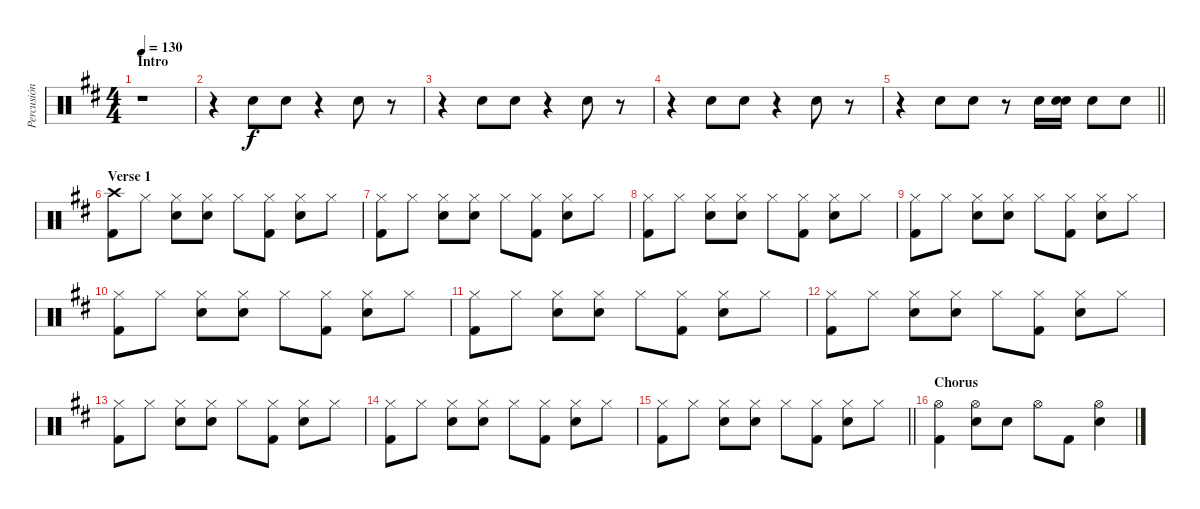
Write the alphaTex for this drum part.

\track ("Percusión" "Percusión") {instrument percussion}
\staff {score}
\articulation defaults
\ts (4 4)
\section ("" "Intro")
\tempo 130
\clef neutral
\ks d
r.1{dy f} |
r.4 "Hand Clap (hit)".8 "Hand Clap (hit)".8 r.4 "Hand Clap (hit)".8 r.8 |
r.4 "Hand Clap (hit)".8 "Hand Clap (hit)".8 r.4 "Hand Clap (hit)".8 r.8 |
r.4 "Hand Clap (hit)".8 "Hand Clap (hit)".8 r.4 "Hand Clap (hit)".8 r.8 |
\barLineRight lightlight
r.4 "Hand Clap (hit)".8 "Hand Clap (hit)".8 r.8 "Snare (hit) 2".16 ("Hand Clap (hit)" "Snare (hit) 2").16 "Snare (hit) 2".8 "Snare (hit) 2".8 |
\section ("" "Verse 1")
("Kick (hit) 2" "Crash high (hit)").8 "Hi-Hat (closed)".8 ("Snare (hit) 2" "Hi-Hat (closed)").8 ("Snare (hit) 2" "Hi-Hat (closed)").8 "Hi-Hat (closed)".8 ("Kick (hit) 2" "Hi-Hat (closed)").8 ("Snare (hit) 2" "Hi-Hat (closed)").8 "Hi-Hat (closed)".8 |
("Kick (hit) 2" "Hi-Hat (closed)").8 "Hi-Hat (closed)".8 ("Snare (hit) 2" "Hi-Hat (closed)").8 ("Snare (hit) 2" "Hi-Hat (closed)").8 "Hi-Hat (closed)".8 ("Kick (hit) 2" "Hi-Hat (closed)").8 ("Snare (hit) 2" "Hi-Hat (closed)").8 "Hi-Hat (closed)".8 |
("Kick (hit) 2" "Hi-Hat (closed)").8 "Hi-Hat (closed)".8 ("Snare (hit) 2" "Hi-Hat (closed)").8 ("Snare (hit) 2" "Hi-Hat (closed)").8 "Hi-Hat (closed)".8 ("Kick (hit) 2" "Hi-Hat (closed)").8 ("Snare (hit) 2" "Hi-Hat (closed)").8 "Hi-Hat (closed)".8 |
("Kick (hit) 2" "Hi-Hat (closed)").8 "Hi-Hat (closed)".8 ("Snare (hit) 2" "Hi-Hat (closed)").8 ("Snare (hit) 2" "Hi-Hat (closed)").8 "Hi-Hat (closed)".8 ("Kick (hit) 2" "Hi-Hat (closed)").8 ("Snare (hit) 2" "Hi-Hat (closed)").8 "Hi-Hat (closed)".8 |
("Kick (hit) 2" "Hi-Hat (closed)").8 "Hi-Hat (closed)".8 ("Snare (hit) 2" "Hi-Hat (closed)").8 ("Snare (hit) 2" "Hi-Hat (closed)").8 "Hi-Hat (closed)".8 ("Kick (hit) 2" "Hi-Hat (closed)").8 ("Snare (hit) 2" "Hi-Hat (closed)").8 "Hi-Hat (closed)".8 |
("Kick (hit) 2" "Hi-Hat (closed)").8 "Hi-Hat (closed)".8 ("Snare (hit) 2" "Hi-Hat (closed)").8 ("Snare (hit) 2" "Hi-Hat (closed)").8 "Hi-Hat (closed)".8 ("Kick (hit) 2" "Hi-Hat (closed)").8 ("Snare (hit) 2" "Hi-Hat (closed)").8 "Hi-Hat (closed)".8 |
("Kick (hit) 2" "Hi-Hat (closed)").8 "Hi-Hat (closed)".8 ("Snare (hit) 2" "Hi-Hat (closed)").8 ("Snare (hit) 2" "Hi-Hat (closed)").8 "Hi-Hat (closed)".8 ("Kick (hit) 2" "Hi-Hat (closed)").8 ("Snare (hit) 2" "Hi-Hat (closed)").8 "Hi-Hat (closed)".8 |
("Kick (hit) 2" "Hi-Hat (closed)").8 "Hi-Hat (closed)".8 ("Snare (hit) 2" "Hi-Hat (closed)").8 ("Snare (hit) 2" "Hi-Hat (closed)").8 "Hi-Hat (closed)".8 ("Kick (hit) 2" "Hi-Hat (closed)").8 ("Snare (hit) 2" "Hi-Hat (closed)").8 "Hi-Hat (closed)".8 |
("Kick (hit) 2" "Hi-Hat (closed)").8 "Hi-Hat (closed)".8 ("Snare (hit) 2" "Hi-Hat (closed)").8 ("Snare (hit) 2" "Hi-Hat (closed)").8 "Hi-Hat (closed)".8 ("Kick (hit) 2" "Hi-Hat (closed)").8 ("Snare (hit) 2" "Hi-Hat (closed)").8 "Hi-Hat (closed)".8 |
\barLineRight lightlight
("Kick (hit) 2" "Hi-Hat (closed)").8 "Hi-Hat (closed)".8 ("Snare (hit) 2" "Hi-Hat (closed)").8 ("Snare (hit) 2" "Hi-Hat (closed)").8 "Hi-Hat (closed)".8 ("Kick (hit) 2" "Hi-Hat (closed)").8 ("Snare (hit) 2" "Hi-Hat (closed)").8 "Hi-Hat (closed)".8 |
\section ("" "Chorus")
("Kick (hit) 2" "Hi-Hat (open)").4 ("Snare (hit) 2" "Hi-Hat (open)").8 "Snare (hit) 2".8 "Hi-Hat (open)".8 "Kick (hit) 2".8 ("Snare (hit) 2" "Hi-Hat (open)").4
